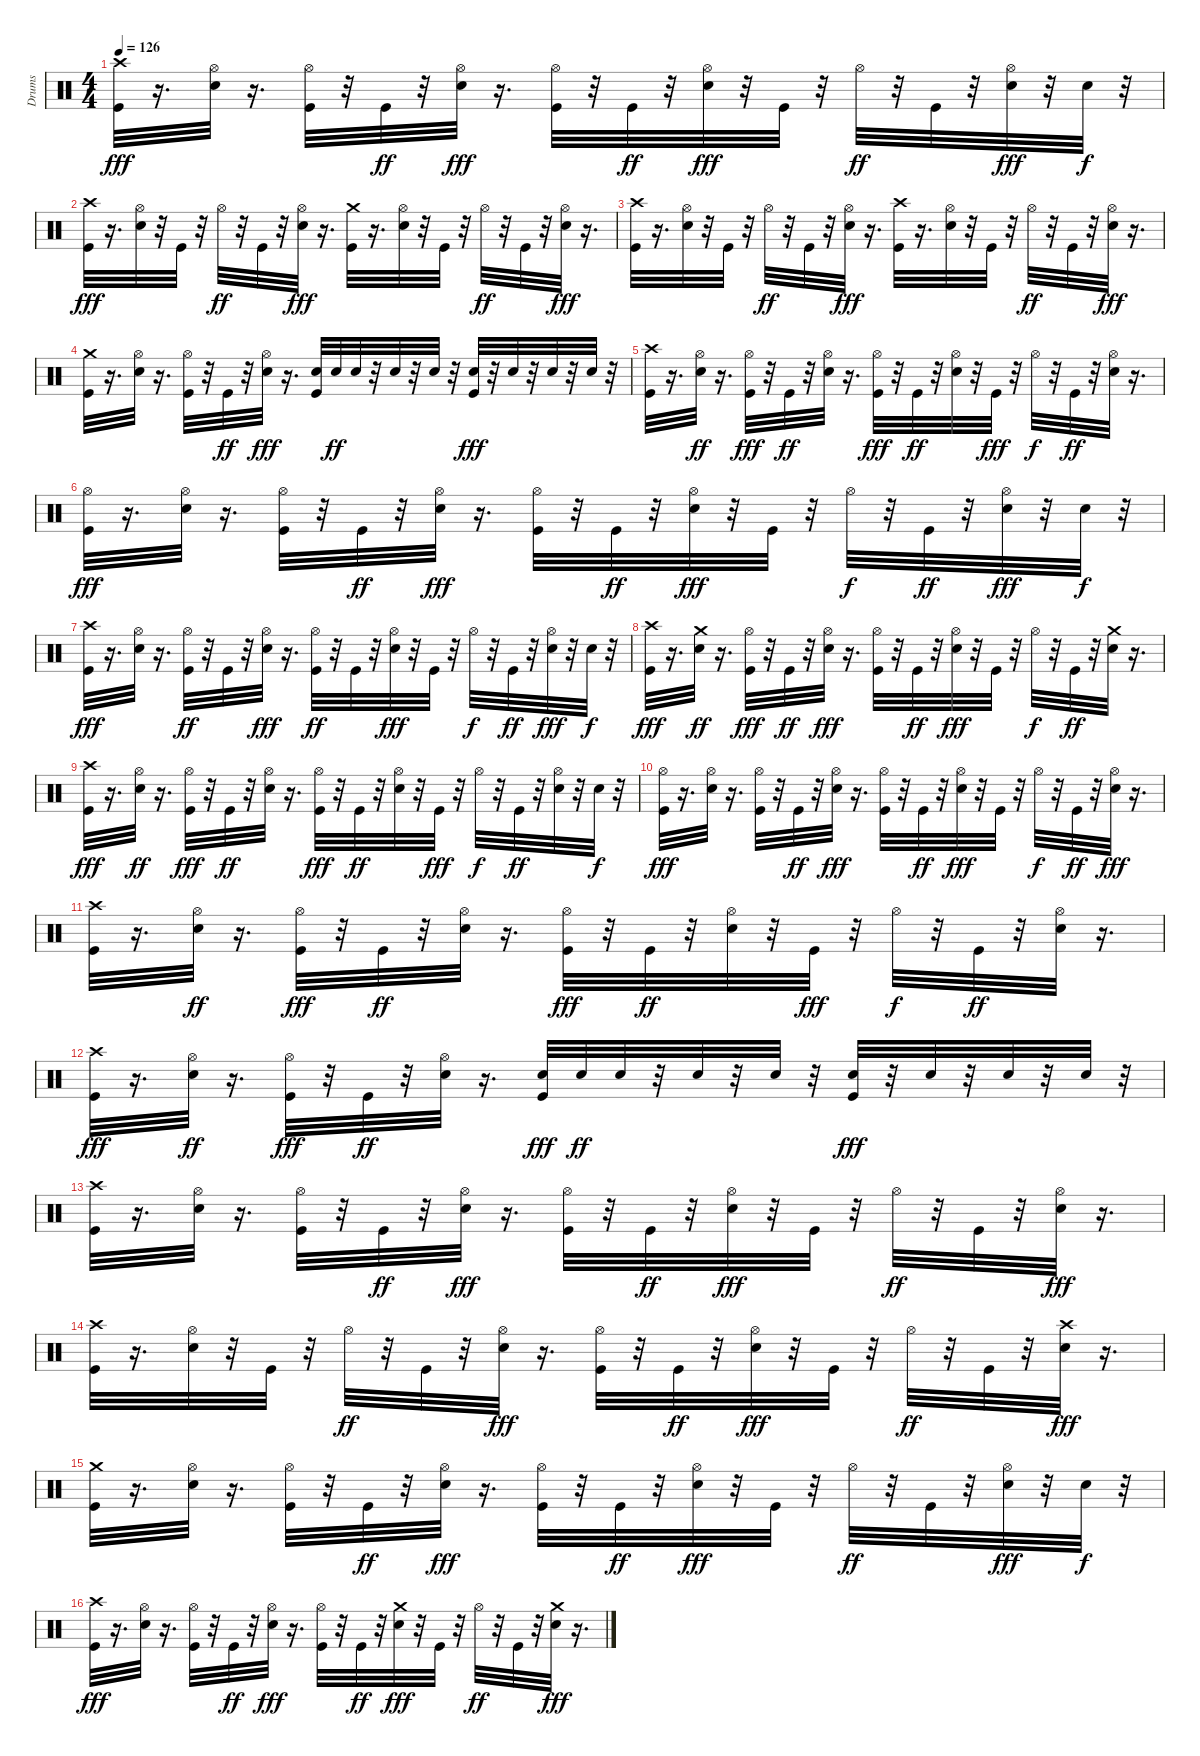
\track ("Drums" "Drums") {instrument percussion}
\staff {score}
\articulation defaults
\ts (4 4)
\tempo 126
\clef neutral
\ks c
("Kick (hit)" "Crash high (hit)").32{dy fff} r.16{d} ("Hi-Hat (open)" "Electric Snare (hit)").32 r.16{d} ("Hi-Hat (open)" "Kick (hit)").32 r.32 "Kick (hit)".32{dy ff} r.32 ("Hi-Hat (open)" "Electric Snare (hit)").32{dy fff} r.16{d} ("Hi-Hat (open)" "Kick (hit)").32 r.32 "Kick (hit)".32{dy ff} r.32 ("Hi-Hat (open)" "Electric Snare (hit)").32{dy fff} r.32 "Kick (hit)".32 r.32 "Hi-Hat (open)".32{dy ff} r.32 "Kick (hit)".32 r.32 ("Hi-Hat (open)" "Electric Snare (hit)").32{dy fff} r.32 "Electric Snare (hit)".32{dy f} r.32 |
("Kick (hit)" "Crash high (hit)").32{dy fff} r.16{d} ("Hi-Hat (open)" "Electric Snare (hit)").32 r.32 "Kick (hit)".32 r.32 "Hi-Hat (open)".32{dy ff} r.32 "Kick (hit)".32 r.32 ("Hi-Hat (open)" "Electric Snare (hit)").32{dy fff} r.16{d} ("Kick (hit)" "Crash medium (hit)").32 r.16{d} ("Hi-Hat (open)" "Electric Snare (hit)").32 r.32 "Kick (hit)".32 r.32 "Hi-Hat (open)".32{dy ff} r.32 "Kick (hit)".32 r.32 ("Hi-Hat (open)" "Electric Snare (hit)").32{dy fff} r.16{d} |
("Crash high (hit)" "Kick (hit)").32 r.16{d} ("Hi-Hat (open)" "Electric Snare (hit)").32 r.32 "Kick (hit)".32 r.32 "Hi-Hat (open)".32{dy ff} r.32 "Kick (hit)".32 r.32 ("Hi-Hat (open)" "Electric Snare (hit)").32{dy fff} r.16{d} ("Crash high (hit)" "Kick (hit)").32 r.16{d} ("Hi-Hat (open)" "Electric Snare (hit)").32 r.32 "Kick (hit)".32 r.32 "Hi-Hat (open)".32{dy ff} r.32 "Kick (hit)".32 r.32 ("Hi-Hat (open)" "Electric Snare (hit)").32{dy fff} r.16{d} |
("Kick (hit)" "Crash medium (hit)").32 r.16{d} ("Hi-Hat (open)" "Electric Snare (hit)").32 r.16{d} ("Hi-Hat (open)" "Kick (hit)").32 r.32 "Kick (hit)".32{dy ff} r.32 ("Hi-Hat (open)" "Electric Snare (hit)").32{dy fff} r.16{d} ("Electric Snare (hit)" "Kick (hit)").32 "Electric Snare (hit)".32{dy ff} "Electric Snare (hit)".32 r.32 "Electric Snare (hit)".32 r.32 "Electric Snare (hit)".32 r.32 ("Electric Snare (hit)" "Kick (hit)").32{dy fff} r.32 "Electric Snare (hit)".32 r.32 "Electric Snare (hit)".32 r.32 "Electric Snare (hit)".32 r.32 |
("Kick (hit)" "Crash high (hit)").32 r.16{d} ("Electric Snare (hit)" "Hi-Hat (open)").32{dy ff} r.16{d} ("Kick (hit)" "Hi-Hat (open)").32{dy fff} r.32 "Kick (hit)".32{dy ff} r.32 ("Electric Snare (hit)" "Hi-Hat (open)").32 r.16{d} ("Kick (hit)" "Hi-Hat (open)").32{dy fff} r.32 "Kick (hit)".32{dy ff} r.32 ("Electric Snare (hit)" "Hi-Hat (open)").32 r.32 "Kick (hit)".32{dy fff} r.32 "Hi-Hat (open)".32{dy f} r.32 "Kick (hit)".32{dy ff} r.32 ("Electric Snare (hit)" "Hi-Hat (open)").32 r.16{d} |
("Hi-Hat (open)" "Kick (hit)").32{dy fff} r.16{d} ("Hi-Hat (open)" "Electric Snare (hit)").32 r.16{d} ("Hi-Hat (open)" "Kick (hit)").32 r.32 "Kick (hit)".32{dy ff} r.32 ("Hi-Hat (open)" "Electric Snare (hit)").32{dy fff} r.16{d} ("Hi-Hat (open)" "Kick (hit)").32 r.32 "Kick (hit)".32{dy ff} r.32 ("Hi-Hat (open)" "Electric Snare (hit)").32{dy fff} r.32 "Kick (hit)".32 r.32 "Hi-Hat (open)".32{dy f} r.32 "Kick (hit)".32{dy ff} r.32 ("Hi-Hat (open)" "Electric Snare (hit)").32{dy fff} r.32 "Electric Snare (hit)".32{dy f} r.32 |
("Crash high (hit)" "Kick (hit)").32{dy fff} r.16{d} ("Electric Snare (hit)" "Hi-Hat (open)").32 r.16{d} ("Kick (hit)" "Hi-Hat (open)").32{dy ff} r.32 "Kick (hit)".32 r.32 ("Electric Snare (hit)" "Hi-Hat (open)").32{dy fff} r.16{d} ("Kick (hit)" "Hi-Hat (open)").32{dy ff} r.32 "Kick (hit)".32 r.32 ("Electric Snare (hit)" "Hi-Hat (open)").32{dy fff} r.32 "Kick (hit)".32 r.32 "Hi-Hat (open)".32{dy f} r.32 "Kick (hit)".32{dy ff} r.32 ("Electric Snare (hit)" "Hi-Hat (open)").32{dy fff} r.32 "Electric Snare (hit)".32{dy f} r.32 |
("Kick (hit)" "Crash high (hit)").32{dy fff} r.16{d} ("Electric Snare (hit)" "Crash medium (hit)").32{dy ff} r.16{d} ("Hi-Hat (open)" "Kick (hit)").32{dy fff} r.32 "Kick (hit)".32{dy ff} r.32 ("Hi-Hat (open)" "Electric Snare (hit)").32{dy fff} r.16{d} ("Hi-Hat (open)" "Kick (hit)").32 r.32 "Kick (hit)".32{dy ff} r.32 ("Hi-Hat (open)" "Electric Snare (hit)").32{dy fff} r.32 "Kick (hit)".32 r.32 "Hi-Hat (open)".32{dy f} r.32 "Kick (hit)".32{dy ff} r.32 ("Electric Snare (hit)" "Crash medium (hit)").32 r.16{d} |
("Kick (hit)" "Crash high (hit)").32{dy fff} r.16{d} ("Electric Snare (hit)" "Hi-Hat (open)").32{dy ff} r.16{d} ("Kick (hit)" "Hi-Hat (open)").32{dy fff} r.32 "Kick (hit)".32{dy ff} r.32 ("Electric Snare (hit)" "Hi-Hat (open)").32 r.16{d} ("Kick (hit)" "Hi-Hat (open)").32{dy fff} r.32 "Kick (hit)".32{dy ff} r.32 ("Electric Snare (hit)" "Hi-Hat (open)").32 r.32 "Kick (hit)".32{dy fff} r.32 "Hi-Hat (open)".32{dy f} r.32 "Kick (hit)".32{dy ff} r.32 ("Electric Snare (hit)" "Hi-Hat (open)").32 r.32 "Electric Snare (hit)".32{dy f} r.32 |
("Hi-Hat (open)" "Kick (hit)").32{dy fff} r.16{d} ("Hi-Hat (open)" "Electric Snare (hit)").32 r.16{d} ("Hi-Hat (open)" "Kick (hit)").32 r.32 "Kick (hit)".32{dy ff} r.32 ("Hi-Hat (open)" "Electric Snare (hit)").32{dy fff} r.16{d} ("Hi-Hat (open)" "Kick (hit)").32 r.32 "Kick (hit)".32{dy ff} r.32 ("Hi-Hat (open)" "Electric Snare (hit)").32{dy fff} r.32 "Kick (hit)".32 r.32 "Hi-Hat (open)".32{dy f} r.32 "Kick (hit)".32{dy ff} r.32 ("Hi-Hat (open)" "Electric Snare (hit)").32{dy fff} r.16{d} |
("Kick (hit)" "Crash high (hit)").32 r.16{d} ("Electric Snare (hit)" "Hi-Hat (open)").32{dy ff} r.16{d} ("Kick (hit)" "Hi-Hat (open)").32{dy fff} r.32 "Kick (hit)".32{dy ff} r.32 ("Electric Snare (hit)" "Hi-Hat (open)").32 r.16{d} ("Kick (hit)" "Hi-Hat (open)").32{dy fff} r.32 "Kick (hit)".32{dy ff} r.32 ("Electric Snare (hit)" "Hi-Hat (open)").32 r.32 "Kick (hit)".32{dy fff} r.32 "Hi-Hat (open)".32{dy f} r.32 "Kick (hit)".32{dy ff} r.32 ("Electric Snare (hit)" "Hi-Hat (open)").32 r.16{d} |
("Kick (hit)" "Crash high (hit)").32{dy fff} r.16{d} ("Electric Snare (hit)" "Hi-Hat (open)").32{dy ff} r.16{d} ("Kick (hit)" "Hi-Hat (open)").32{dy fff} r.32 "Kick (hit)".32{dy ff} r.32 ("Electric Snare (hit)" "Hi-Hat (open)").32 r.16{d} ("Electric Snare (hit)" "Kick (hit)").32{dy fff} "Electric Snare (hit)".32{dy ff} "Electric Snare (hit)".32 r.32 "Electric Snare (hit)".32 r.32 "Electric Snare (hit)".32 r.32 ("Electric Snare (hit)" "Kick (hit)").32{dy fff} r.32 "Electric Snare (hit)".32 r.32 "Electric Snare (hit)".32 r.32 "Electric Snare (hit)".32 r.32 |
("Crash high (hit)" "Kick (hit)").32 r.16{d} ("Hi-Hat (open)" "Electric Snare (hit)").32 r.16{d} ("Hi-Hat (open)" "Kick (hit)").32 r.32 "Kick (hit)".32{dy ff} r.32 ("Hi-Hat (open)" "Electric Snare (hit)").32{dy fff} r.16{d} ("Hi-Hat (open)" "Kick (hit)").32 r.32 "Kick (hit)".32{dy ff} r.32 ("Hi-Hat (open)" "Electric Snare (hit)").32{dy fff} r.32 "Kick (hit)".32 r.32 "Hi-Hat (open)".32{dy ff} r.32 "Kick (hit)".32 r.32 ("Hi-Hat (open)" "Electric Snare (hit)").32{dy fff} r.16{d} |
("Kick (hit)" "Crash high (hit)").32 r.16{d} ("Hi-Hat (open)" "Electric Snare (hit)").32 r.32 "Kick (hit)".32 r.32 "Hi-Hat (open)".32{dy ff} r.32 "Kick (hit)".32 r.32 ("Hi-Hat (open)" "Electric Snare (hit)").32{dy fff} r.16{d} ("Hi-Hat (open)" "Kick (hit)").32 r.32 "Kick (hit)".32{dy ff} r.32 ("Hi-Hat (open)" "Electric Snare (hit)").32{dy fff} r.32 "Kick (hit)".32 r.32 "Hi-Hat (open)".32{dy ff} r.32 "Kick (hit)".32 r.32 ("Electric Snare (hit)" "Crash high (hit)").32{dy fff} r.16{d} |
("Kick (hit)" "Crash medium (hit)").32 r.16{d} ("Electric Snare (hit)" "Hi-Hat (open)").32 r.16{d} ("Hi-Hat (open)" "Kick (hit)").32 r.32 "Kick (hit)".32{dy ff} r.32 ("Hi-Hat (open)" "Electric Snare (hit)").32{dy fff} r.16{d} ("Hi-Hat (open)" "Kick (hit)").32 r.32 "Kick (hit)".32{dy ff} r.32 ("Hi-Hat (open)" "Electric Snare (hit)").32{dy fff} r.32 "Kick (hit)".32 r.32 "Hi-Hat (open)".32{dy ff} r.32 "Kick (hit)".32 r.32 ("Hi-Hat (open)" "Electric Snare (hit)").32{dy fff} r.32 "Electric Snare (hit)".32{dy f} r.32 |
("Crash high (hit)" "Kick (hit)").32{dy fff} r.16{d} ("Electric Snare (hit)" "Hi-Hat (open)").32 r.16{d} ("Hi-Hat (open)" "Kick (hit)").32 r.32 "Kick (hit)".32{dy ff} r.32 ("Hi-Hat (open)" "Electric Snare (hit)").32{dy fff} r.16{d} ("Hi-Hat (open)" "Kick (hit)").32 r.32 "Kick (hit)".32{dy ff} r.32 ("Electric Snare (hit)" "Crash medium (hit)").32{dy fff} r.32 "Kick (hit)".32 r.32 "Hi-Hat (open)".32{dy ff} r.32 "Kick (hit)".32 r.32 ("Electric Snare (hit)" "Crash medium (hit)").32{dy fff} r.16{d}
